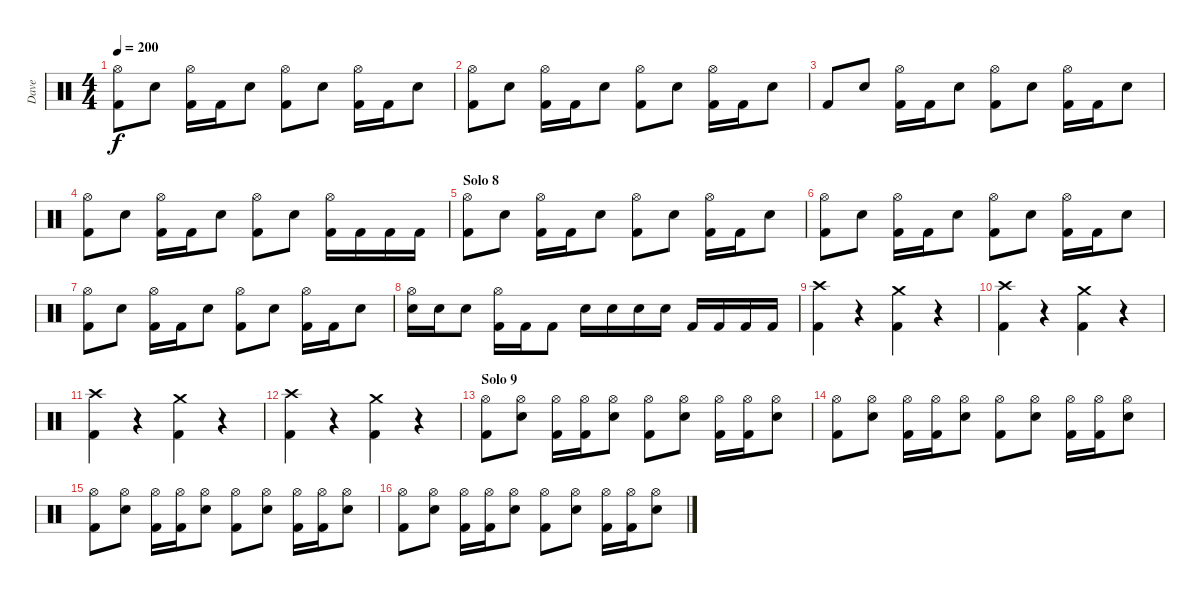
\track ("Dave" "Dave") {instrument percussion}
\staff {score}
\articulation defaults
\ts (4 4)
\tempo 200
\clef neutral
\ks c
("Hi-Hat (open)" "Kick (hit) 2").8{dy f} "Snare (hit) 2".8 ("Hi-Hat (open)" "Kick (hit) 2").16 "Kick (hit) 2".16 "Snare (hit) 2".8 ("Hi-Hat (open)" "Kick (hit) 2").8 "Snare (hit) 2".8 ("Hi-Hat (open)" "Kick (hit) 2").16 "Kick (hit) 2".16 "Snare (hit) 2".8 |
("Hi-Hat (open)" "Kick (hit) 2").8 "Snare (hit) 2".8 ("Hi-Hat (open)" "Kick (hit) 2").16 "Kick (hit) 2".16 "Snare (hit) 2".8 ("Hi-Hat (open)" "Kick (hit) 2").8 "Snare (hit) 2".8 ("Hi-Hat (open)" "Kick (hit) 2").16 "Kick (hit) 2".16 "Snare (hit) 2".8 |
"Kick (hit) 2".8 "Snare (hit) 2".8 ("Hi-Hat (open)" "Kick (hit) 2").16 "Kick (hit) 2".16 "Snare (hit) 2".8 ("Hi-Hat (open)" "Kick (hit) 2").8 "Snare (hit) 2".8 ("Hi-Hat (open)" "Kick (hit) 2").16 "Kick (hit) 2".16 "Snare (hit) 2".8 |
("Hi-Hat (open)" "Kick (hit) 2").8 "Snare (hit) 2".8 ("Hi-Hat (open)" "Kick (hit) 2").16 "Kick (hit) 2".16 "Snare (hit) 2".8 ("Hi-Hat (open)" "Kick (hit) 2").8 "Snare (hit) 2".8 ("Hi-Hat (open)" "Kick (hit) 2").16 "Kick (hit) 2".16 "Kick (hit) 2".16 "Kick (hit) 2".16 |
\section ("" "Solo 8")
("Hi-Hat (open)" "Kick (hit) 2").8 "Snare (hit) 2".8 ("Hi-Hat (open)" "Kick (hit) 2").16 "Kick (hit) 2".16 "Snare (hit) 2".8 ("Hi-Hat (open)" "Kick (hit) 2").8 "Snare (hit) 2".8 ("Hi-Hat (open)" "Kick (hit) 2").16 "Kick (hit) 2".16 "Snare (hit) 2".8 |
("Hi-Hat (open)" "Kick (hit) 2").8 "Snare (hit) 2".8 ("Hi-Hat (open)" "Kick (hit) 2").16 "Kick (hit) 2".16 "Snare (hit) 2".8 ("Hi-Hat (open)" "Kick (hit) 2").8 "Snare (hit) 2".8 ("Hi-Hat (open)" "Kick (hit) 2").16 "Kick (hit) 2".16 "Snare (hit) 2".8 |
("Hi-Hat (open)" "Kick (hit) 2").8 "Snare (hit) 2".8 ("Hi-Hat (open)" "Kick (hit) 2").16 "Kick (hit) 2".16 "Snare (hit) 2".8 ("Hi-Hat (open)" "Kick (hit) 2").8 "Snare (hit) 2".8 ("Hi-Hat (open)" "Kick (hit) 2").16 "Kick (hit) 2".16 "Snare (hit) 2".8 |
("Hi-Hat (open)" "Snare (hit) 2").16 "Snare (hit) 2".16 "Snare (hit) 2".8 ("Hi-Hat (open)" "Kick (hit) 2").16 "Kick (hit) 2".16 "Kick (hit) 2".8 "Snare (hit) 2".16 "Snare (hit) 2".16 "Snare (hit) 2".16 "Snare (hit) 2".16 "Kick (hit) 2".16 "Kick (hit) 2".16 "Kick (hit) 2".16 "Kick (hit) 2".16 |
("Crash high (hit)" "Kick (hit) 2").4 r.4 ("Crash medium (hit)" "Kick (hit) 2").4 r.4 |
("Crash high (hit)" "Kick (hit) 2").4 r.4 ("Crash medium (hit)" "Kick (hit) 2").4 r.4 |
("Crash high (hit)" "Kick (hit) 2").4 r.4 ("Crash medium (hit)" "Kick (hit) 2").4 r.4 |
("Crash high (hit)" "Kick (hit) 2").4 r.4 ("Crash medium (hit)" "Kick (hit) 2").4 r.4 |
\section ("" "Solo 9")
("Hi-Hat (open)" "Kick (hit) 2").8 ("Hi-Hat (open)" "Snare (hit) 2").8 ("Hi-Hat (open)" "Kick (hit) 2").16 ("Hi-Hat (open)" "Kick (hit) 2").16 ("Hi-Hat (open)" "Snare (hit) 2").8 ("Hi-Hat (open)" "Kick (hit) 2").8 ("Hi-Hat (open)" "Snare (hit) 2").8 ("Hi-Hat (open)" "Kick (hit) 2").16 ("Hi-Hat (open)" "Kick (hit) 2").16 ("Hi-Hat (open)" "Snare (hit) 2").8 |
("Hi-Hat (open)" "Kick (hit) 2").8 ("Hi-Hat (open)" "Snare (hit) 2").8 ("Hi-Hat (open)" "Kick (hit) 2").16 ("Hi-Hat (open)" "Kick (hit) 2").16 ("Hi-Hat (open)" "Snare (hit) 2").8 ("Hi-Hat (open)" "Kick (hit) 2").8 ("Hi-Hat (open)" "Snare (hit) 2").8 ("Hi-Hat (open)" "Kick (hit) 2").16 ("Hi-Hat (open)" "Kick (hit) 2").16 ("Hi-Hat (open)" "Snare (hit) 2").8 |
("Hi-Hat (open)" "Kick (hit) 2").8 ("Hi-Hat (open)" "Snare (hit) 2").8 ("Hi-Hat (open)" "Kick (hit) 2").16 ("Hi-Hat (open)" "Kick (hit) 2").16 ("Hi-Hat (open)" "Snare (hit) 2").8 ("Hi-Hat (open)" "Kick (hit) 2").8 ("Hi-Hat (open)" "Snare (hit) 2").8 ("Hi-Hat (open)" "Kick (hit) 2").16 ("Hi-Hat (open)" "Kick (hit) 2").16 ("Hi-Hat (open)" "Snare (hit) 2").8 |
("Hi-Hat (open)" "Kick (hit) 2").8 ("Hi-Hat (open)" "Snare (hit) 2").8 ("Hi-Hat (open)" "Kick (hit) 2").16 ("Hi-Hat (open)" "Kick (hit) 2").16 ("Hi-Hat (open)" "Snare (hit) 2").8 ("Hi-Hat (open)" "Kick (hit) 2").8 ("Hi-Hat (open)" "Snare (hit) 2").8 ("Hi-Hat (open)" "Kick (hit) 2").16 ("Hi-Hat (open)" "Kick (hit) 2").16 ("Hi-Hat (open)" "Snare (hit) 2").8
